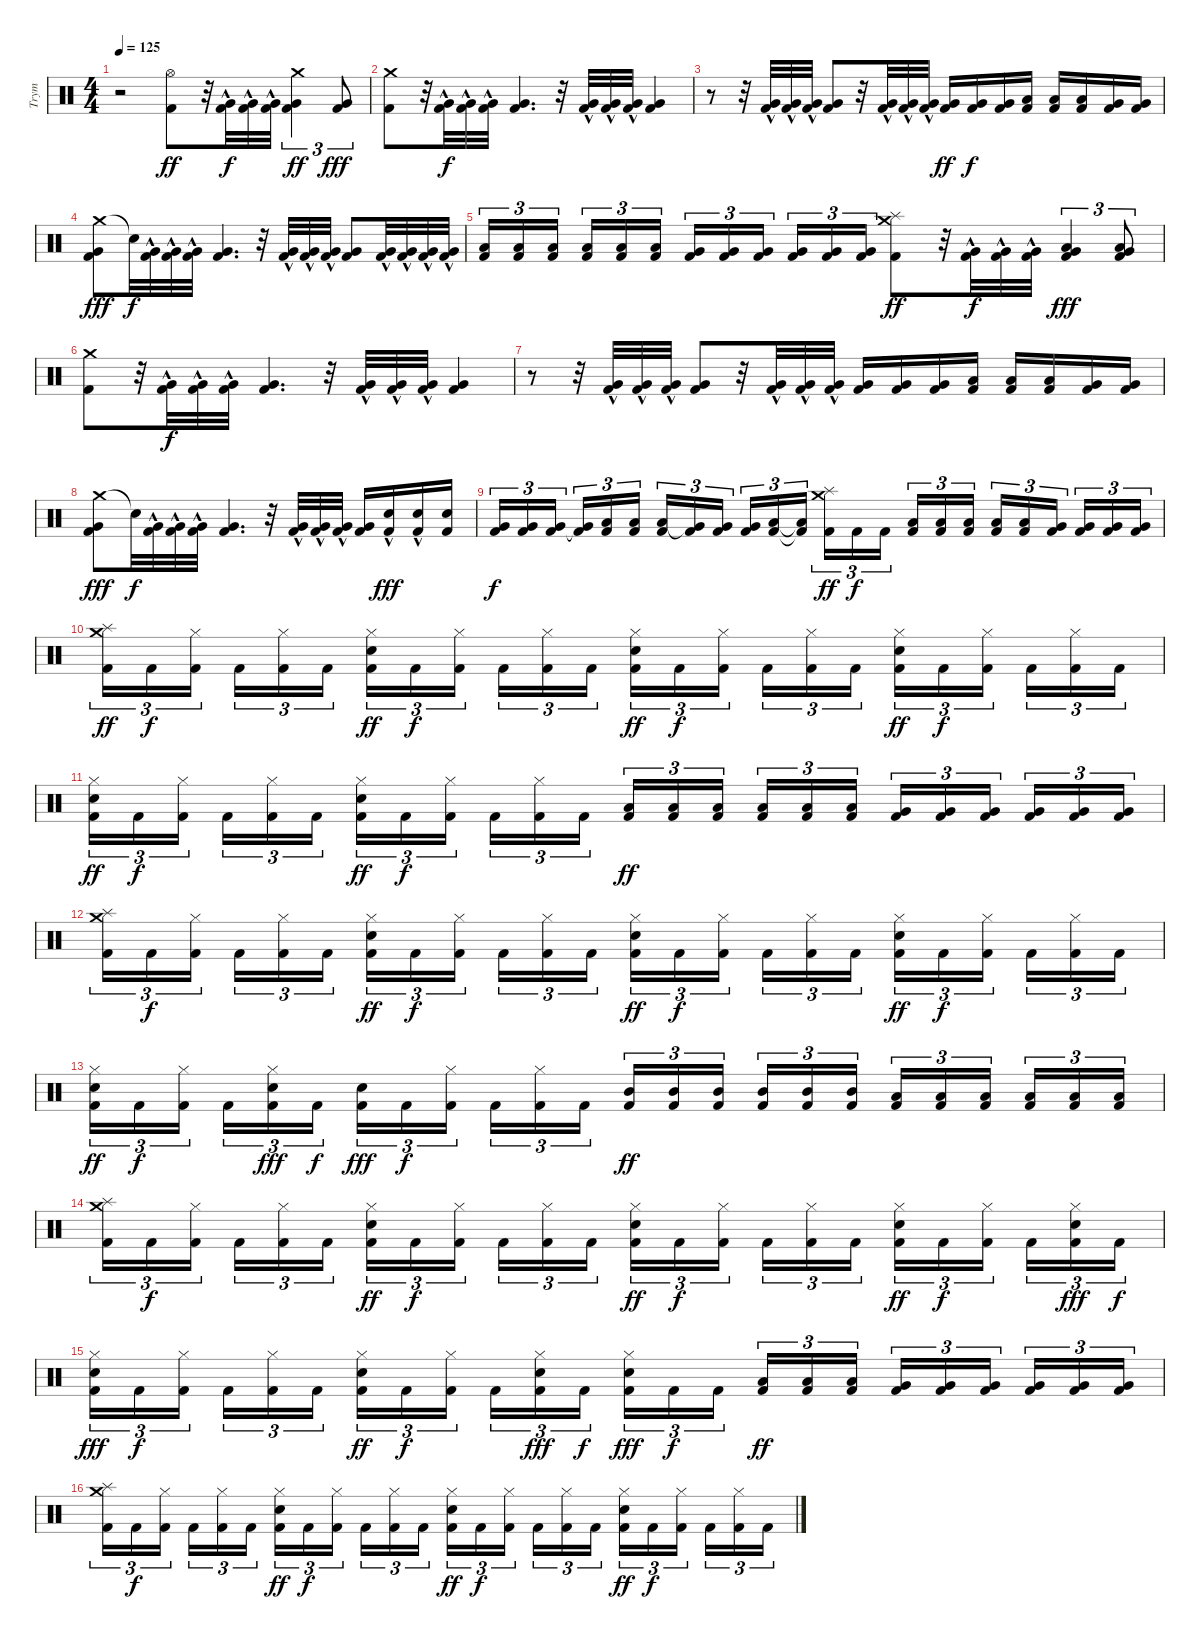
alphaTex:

\track ("Trym" "Trym") {instrument percussion}
\staff {score}
\articulation defaults
\ts (4 4)
\tempo 125
\clef neutral
\ks c
r.2{dy ff} ("Hi-Hat (open)" "Kick (hit) 2").8 r.32 ("Very Low Tom (hit)" "Kick (hit) 2"{hac}).32{dy f} ("Very Low Tom (hit)" "Kick (hit) 2"{hac}).32 ("Very Low Tom (hit)" "Kick (hit) 2"{hac}).32 ("Crash medium (hit)" "Very Low Tom (hit)" "Kick (hit) 2").4{tu (3 2) dy ff} ("Very Low Tom (hit)" "Kick (hit) 2").8{tu (3 2) dy fff} |
("Crash medium (hit)" "Kick (hit) 2").8 r.32 ("Very Low Tom (hit)" "Kick (hit) 2"{hac}).32{dy f} ("Very Low Tom (hit)" "Kick (hit) 2"{hac}).32 ("Very Low Tom (hit)" "Kick (hit) 2"{hac}).32 ("Very Low Tom (hit)" "Kick (hit) 2").4{d} r.32 ("Very Low Tom (hit)" "Kick (hit) 2"{hac}).32 ("Very Low Tom (hit)" "Kick (hit) 2"{hac}).32 ("Very Low Tom (hit)" "Kick (hit) 2"{hac}).32 ("Very Low Tom (hit)" "Kick (hit) 2").4 |
r.8 r.32 ("Very Low Tom (hit)" "Kick (hit) 2"{hac}).32 ("Very Low Tom (hit)" "Kick (hit) 2"{hac}).32 ("Very Low Tom (hit)" "Kick (hit) 2"{hac}).32 ("Very Low Tom (hit)" "Kick (hit) 2").8 r.32 ("Very Low Tom (hit)" "Kick (hit) 2"{hac}).32 ("Very Low Tom (hit)" "Kick (hit) 2"{hac}).32 ("Very Low Tom (hit)" "Kick (hit) 2"{hac}).32 ("Very Low Tom (hit)" "Kick (hit) 2").16{dy ff} ("Very Low Tom (hit)" "Kick (hit) 2").16{dy f} ("Very Low Tom (hit)" "Kick (hit) 2").16 ("Low Tom (hit)" "Kick (hit) 2").16 ("Low Tom (hit)" "Kick (hit) 2").16 ("Low Tom (hit)" "Kick (hit) 2").16 ("Very Low Tom (hit)" "Kick (hit) 2").16 ("Very Low Tom (hit)" "Kick (hit) 2").16 |
("Crash medium (hit)" "Very Low Tom (hit)" "Kick (hit) 2").8{dy fff} "Snare (hit)"{t}.32{dy f} ("Very Low Tom (hit)" "Kick (hit) 2"{hac}).32 ("Very Low Tom (hit)" "Kick (hit) 2"{hac}).32 ("Very Low Tom (hit)" "Kick (hit) 2"{hac}).32 ("Very Low Tom (hit)" "Kick (hit) 2").4{d} r.32 ("Very Low Tom (hit)" "Kick (hit) 2"{hac}).32 ("Very Low Tom (hit)" "Kick (hit) 2"{hac}).32 ("Very Low Tom (hit)" "Kick (hit) 2"{hac}).32 ("Very Low Tom (hit)" "Kick (hit) 2").8 ("Very Low Tom (hit)" "Kick (hit) 2"{hac}).32 ("Very Low Tom (hit)" "Kick (hit) 2"{hac}).32 ("Very Low Tom (hit)" "Kick (hit) 2"{hac}).32 ("Very Low Tom (hit)" "Kick (hit) 2"{hac}).32 |
("Low Tom (hit)" "Kick (hit) 2").16{tu (3 2)} ("Low Tom (hit)" "Kick (hit) 2").16{tu (3 2)} ("Low Tom (hit)" "Kick (hit) 2").16{tu (3 2) beam splitsecondary} ("Low Tom (hit)" "Kick (hit) 2").16{tu (3 2)} ("Low Tom (hit)" "Kick (hit) 2").16{tu (3 2)} ("Low Tom (hit)" "Kick (hit) 2").16{tu (3 2)} ("Very Low Tom (hit)" "Kick (hit) 2").16{tu (3 2)} ("Very Low Tom (hit)" "Kick (hit) 2").16{tu (3 2)} ("Very Low Tom (hit)" "Kick (hit) 2").16{tu (3 2) beam splitsecondary} ("Very Low Tom (hit)" "Kick (hit) 2").16{tu (3 2)} ("Very Low Tom (hit)" "Kick (hit) 2").16{tu (3 2)} ("Very Low Tom (hit)" "Kick (hit) 2").16{tu (3 2)} ("Crash medium (hit)" "Splash (hit)" "Kick (hit) 2").8{dy ff} r.32 ("Very Low Tom (hit)" "Kick (hit) 2"{hac}).32{dy f} ("Very Low Tom (hit)" "Kick (hit) 2"{hac}).32 ("Very Low Tom (hit)" "Kick (hit) 2"{hac}).32 ("Low Tom (hit)" "Very Low Tom (hit)" "Kick (hit) 2").4{tu (3 2) dy fff} ("Low Tom (hit)" "Very Low Tom (hit)" "Kick (hit) 2").8{tu (3 2)} |
("Crash medium (hit)" "Kick (hit) 2").8 r.32 ("Very Low Tom (hit)" "Kick (hit) 2"{hac}).32{dy f} ("Very Low Tom (hit)" "Kick (hit) 2"{hac}).32 ("Very Low Tom (hit)" "Kick (hit) 2"{hac}).32 ("Very Low Tom (hit)" "Kick (hit) 2").4{d} r.32 ("Very Low Tom (hit)" "Kick (hit) 2"{hac}).32 ("Very Low Tom (hit)" "Kick (hit) 2"{hac}).32 ("Very Low Tom (hit)" "Kick (hit) 2"{hac}).32 ("Very Low Tom (hit)" "Kick (hit) 2").4 |
r.8 r.32 ("Very Low Tom (hit)" "Kick (hit) 2"{hac}).32 ("Very Low Tom (hit)" "Kick (hit) 2"{hac}).32 ("Very Low Tom (hit)" "Kick (hit) 2"{hac}).32 ("Very Low Tom (hit)" "Kick (hit) 2").8 r.32 ("Very Low Tom (hit)" "Kick (hit) 2"{hac}).32 ("Very Low Tom (hit)" "Kick (hit) 2"{hac}).32 ("Very Low Tom (hit)" "Kick (hit) 2"{hac}).32 ("Very Low Tom (hit)" "Kick (hit) 2").16 ("Very Low Tom (hit)" "Kick (hit) 2").16 ("Very Low Tom (hit)" "Kick (hit) 2").16 ("Low Tom (hit)" "Kick (hit) 2").16 ("Low Tom (hit)" "Kick (hit) 2").16 ("Low Tom (hit)" "Kick (hit) 2").16 ("Very Low Tom (hit)" "Kick (hit) 2").16 ("Very Low Tom (hit)" "Kick (hit) 2").16 |
("Crash medium (hit)" "Very Low Tom (hit)" "Kick (hit) 2").8{dy fff} "Snare (hit)"{t}.32{dy f} ("Very Low Tom (hit)" "Kick (hit) 2"{hac}).32 ("Very Low Tom (hit)" "Kick (hit) 2"{hac}).32 ("Very Low Tom (hit)" "Kick (hit) 2"{hac}).32 ("Very Low Tom (hit)" "Kick (hit) 2").4{d} r.32 ("Very Low Tom (hit)" "Kick (hit) 2"{hac}).32 ("Very Low Tom (hit)" "Kick (hit) 2"{hac}).32 ("Very Low Tom (hit)" "Kick (hit) 2"{hac}).32 ("Very Low Tom (hit)" "Kick (hit) 2").16 ("Snare (hit) 2" "Kick (hit) 2"{hac}).16{dy fff} ("Snare (hit) 2" "Kick (hit) 2"{hac}).16 ("Snare (hit) 2" "Kick (hit) 2").16 |
("Very Low Tom (hit)" "Kick (hit) 2").16{tu (3 2) dy f} ("Very Low Tom (hit)" "Kick (hit) 2").16{tu (3 2)} ("Very Low Tom (hit)" "Kick (hit) 2").16{tu (3 2) beam splitsecondary} ("Very Low Tom (hit)"{t} "Kick (hit) 2").16{tu (3 2)} ("Low Tom (hit)" "Kick (hit) 2").16{tu (3 2)} ("Low Tom (hit)" "Kick (hit) 2").16{tu (3 2)} ("Low Tom (hit)" "Kick (hit) 2").16{tu (3 2)} ("Very Low Tom (hit)"{t} "Kick (hit) 2").16{tu (3 2)} ("Very Low Tom (hit)" "Kick (hit) 2").16{tu (3 2) beam splitsecondary} ("Very Low Tom (hit)" "Kick (hit) 2").16{tu (3 2)} ("Low Tom (hit)" "Kick (hit) 2").16{tu (3 2)} ("Low Tom (hit)"{t} "Kick (hit) 2"{t}).16{tu (3 2)} ("Crash medium (hit)" "Splash (hit)" "Kick (hit) 2").16{tu (3 2) dy ff} "Kick (hit) 2".16{tu (3 2) dy f} "Kick (hit) 2".16{tu (3 2) beam splitsecondary} ("Low Tom (hit)" "Kick (hit) 2").16{tu (3 2)} ("Low Tom (hit)" "Kick (hit) 2").16{tu (3 2)} ("Low Tom (hit)" "Kick (hit) 2").16{tu (3 2)} ("Low Tom (hit)" "Kick (hit) 2").16{tu (3 2)} ("Low Tom (hit)" "Kick (hit) 2").16{tu (3 2)} ("Very Low Tom (hit)" "Kick (hit) 2").16{tu (3 2) beam splitsecondary} ("Very Low Tom (hit)" "Kick (hit) 2").16{tu (3 2)} ("Very Low Tom (hit)" "Kick (hit) 2").16{tu (3 2)} ("Very Low Tom (hit)" "Kick (hit) 2").16{tu (3 2)} |
("Crash medium (hit)" "Splash (hit)" "Kick (hit) 2").16{tu (3 2) dy ff} "Kick (hit) 2".16{tu (3 2) dy f} ("Hi-Hat (closed)" "Kick (hit) 2").16{tu (3 2) beam splitsecondary} "Kick (hit) 2".16{tu (3 2)} ("Hi-Hat (closed)" "Kick (hit) 2").16{tu (3 2)} "Kick (hit) 2".16{tu (3 2)} ("Snare (hit) 2" "Hi-Hat (closed)" "Kick (hit) 2").16{tu (3 2) dy ff} "Kick (hit) 2".16{tu (3 2) dy f} ("Hi-Hat (closed)" "Kick (hit) 2").16{tu (3 2) beam splitsecondary} "Kick (hit) 2".16{tu (3 2)} ("Hi-Hat (closed)" "Kick (hit) 2").16{tu (3 2)} "Kick (hit) 2".16{tu (3 2)} ("Snare (hit) 2" "Hi-Hat (closed)" "Kick (hit) 2").16{tu (3 2) dy ff} "Kick (hit) 2".16{tu (3 2) dy f} ("Hi-Hat (closed)" "Kick (hit) 2").16{tu (3 2) beam splitsecondary} "Kick (hit) 2".16{tu (3 2)} ("Hi-Hat (closed)" "Kick (hit) 2").16{tu (3 2)} "Kick (hit) 2".16{tu (3 2)} ("Snare (hit) 2" "Hi-Hat (closed)" "Kick (hit) 2").16{tu (3 2) dy ff} "Kick (hit) 2".16{tu (3 2) dy f} ("Hi-Hat (closed)" "Kick (hit) 2").16{tu (3 2) beam splitsecondary} "Kick (hit) 2".16{tu (3 2)} ("Hi-Hat (closed)" "Kick (hit) 2").16{tu (3 2)} "Kick (hit) 2".16{tu (3 2)} |
("Snare (hit) 2" "Hi-Hat (closed)" "Kick (hit) 2").16{tu (3 2) dy ff} "Kick (hit) 2".16{tu (3 2) dy f} ("Hi-Hat (closed)" "Kick (hit) 2").16{tu (3 2) beam splitsecondary} "Kick (hit) 2".16{tu (3 2)} ("Hi-Hat (closed)" "Kick (hit) 2").16{tu (3 2)} "Kick (hit) 2".16{tu (3 2)} ("Snare (hit) 2" "Hi-Hat (closed)" "Kick (hit) 2").16{tu (3 2) dy ff} "Kick (hit) 2".16{tu (3 2) dy f} ("Hi-Hat (closed)" "Kick (hit) 2").16{tu (3 2) beam splitsecondary} "Kick (hit) 2".16{tu (3 2)} ("Hi-Hat (closed)" "Kick (hit) 2").16{tu (3 2)} "Kick (hit) 2".16{tu (3 2)} ("Low Tom (hit)" "Kick (hit) 2").16{tu (3 2) dy ff} ("Low Tom (hit)" "Kick (hit) 2").16{tu (3 2)} ("Low Tom (hit)" "Kick (hit) 2").16{tu (3 2) beam splitsecondary} ("Low Tom (hit)" "Kick (hit) 2").16{tu (3 2)} ("Low Tom (hit)" "Kick (hit) 2").16{tu (3 2)} ("Low Tom (hit)" "Kick (hit) 2").16{tu (3 2)} ("Very Low Tom (hit)" "Kick (hit) 2").16{tu (3 2)} ("Very Low Tom (hit)" "Kick (hit) 2").16{tu (3 2)} ("Very Low Tom (hit)" "Kick (hit) 2").16{tu (3 2) beam splitsecondary} ("Very Low Tom (hit)" "Kick (hit) 2").16{tu (3 2)} ("Very Low Tom (hit)" "Kick (hit) 2").16{tu (3 2)} ("Very Low Tom (hit)" "Kick (hit) 2").16{tu (3 2)} |
("Crash medium (hit)" "Splash (hit)" "Kick (hit) 2").16{tu (3 2)} "Kick (hit) 2".16{tu (3 2) dy f} ("Hi-Hat (closed)" "Kick (hit) 2").16{tu (3 2) beam splitsecondary} "Kick (hit) 2".16{tu (3 2)} ("Hi-Hat (closed)" "Kick (hit) 2").16{tu (3 2)} "Kick (hit) 2".16{tu (3 2)} ("Snare (hit) 2" "Hi-Hat (closed)" "Kick (hit) 2").16{tu (3 2) dy ff} "Kick (hit) 2".16{tu (3 2) dy f} ("Hi-Hat (closed)" "Kick (hit) 2").16{tu (3 2) beam splitsecondary} "Kick (hit) 2".16{tu (3 2)} ("Hi-Hat (closed)" "Kick (hit) 2").16{tu (3 2)} "Kick (hit) 2".16{tu (3 2)} ("Snare (hit) 2" "Hi-Hat (closed)" "Kick (hit) 2").16{tu (3 2) dy ff} "Kick (hit) 2".16{tu (3 2) dy f} ("Hi-Hat (closed)" "Kick (hit) 2").16{tu (3 2) beam splitsecondary} "Kick (hit) 2".16{tu (3 2)} ("Hi-Hat (closed)" "Kick (hit) 2").16{tu (3 2)} "Kick (hit) 2".16{tu (3 2)} ("Snare (hit) 2" "Hi-Hat (closed)" "Kick (hit) 2").16{tu (3 2) dy ff} "Kick (hit) 2".16{tu (3 2) dy f} ("Hi-Hat (closed)" "Kick (hit) 2").16{tu (3 2) beam splitsecondary} "Kick (hit) 2".16{tu (3 2)} ("Hi-Hat (closed)" "Kick (hit) 2").16{tu (3 2)} "Kick (hit) 2".16{tu (3 2)} |
("Snare (hit) 2" "Hi-Hat (closed)" "Kick (hit) 2").16{tu (3 2) dy ff} "Kick (hit) 2".16{tu (3 2) dy f} ("Hi-Hat (closed)" "Kick (hit) 2").16{tu (3 2) beam splitsecondary} "Kick (hit) 2".16{tu (3 2)} ("Snare (hit) 2" "Hi-Hat (closed)" "Kick (hit) 2").16{tu (3 2) dy fff} "Kick (hit) 2".16{tu (3 2) dy f} ("Snare (hit) 2" "Kick (hit) 2").16{tu (3 2) dy fff} "Kick (hit) 2".16{tu (3 2) dy f} ("Hi-Hat (closed)" "Kick (hit) 2").16{tu (3 2) beam splitsecondary} "Kick (hit) 2".16{tu (3 2)} ("Hi-Hat (closed)" "Kick (hit) 2").16{tu (3 2)} "Kick (hit) 2".16{tu (3 2)} ("Mid Tom (hit)" "Kick (hit) 2").16{tu (3 2) dy ff} ("Mid Tom (hit)" "Kick (hit) 2").16{tu (3 2)} ("Mid Tom (hit)" "Kick (hit) 2").16{tu (3 2) beam splitsecondary} ("Mid Tom (hit)" "Kick (hit) 2").16{tu (3 2)} ("Mid Tom (hit)" "Kick (hit) 2").16{tu (3 2)} ("Mid Tom (hit)" "Kick (hit) 2").16{tu (3 2)} ("Low Tom (hit)" "Kick (hit) 2").16{tu (3 2)} ("Low Tom (hit)" "Kick (hit) 2").16{tu (3 2)} ("Low Tom (hit)" "Kick (hit) 2").16{tu (3 2) beam splitsecondary} ("Low Tom (hit)" "Kick (hit) 2").16{tu (3 2)} ("Low Tom (hit)" "Kick (hit) 2").16{tu (3 2)} ("Low Tom (hit)" "Kick (hit) 2").16{tu (3 2)} |
("Crash medium (hit)" "Splash (hit)" "Kick (hit) 2").16{tu (3 2)} "Kick (hit) 2".16{tu (3 2) dy f} ("Hi-Hat (closed)" "Kick (hit) 2").16{tu (3 2) beam splitsecondary} "Kick (hit) 2".16{tu (3 2)} ("Hi-Hat (closed)" "Kick (hit) 2").16{tu (3 2)} "Kick (hit) 2".16{tu (3 2)} ("Snare (hit) 2" "Hi-Hat (closed)" "Kick (hit) 2").16{tu (3 2) dy ff} "Kick (hit) 2".16{tu (3 2) dy f} ("Hi-Hat (closed)" "Kick (hit) 2").16{tu (3 2) beam splitsecondary} "Kick (hit) 2".16{tu (3 2)} ("Hi-Hat (closed)" "Kick (hit) 2").16{tu (3 2)} "Kick (hit) 2".16{tu (3 2)} ("Snare (hit) 2" "Hi-Hat (closed)" "Kick (hit) 2").16{tu (3 2) dy ff} "Kick (hit) 2".16{tu (3 2) dy f} ("Hi-Hat (closed)" "Kick (hit) 2").16{tu (3 2) beam splitsecondary} "Kick (hit) 2".16{tu (3 2)} ("Hi-Hat (closed)" "Kick (hit) 2").16{tu (3 2)} "Kick (hit) 2".16{tu (3 2)} ("Snare (hit) 2" "Hi-Hat (closed)" "Kick (hit) 2").16{tu (3 2) dy ff} "Kick (hit) 2".16{tu (3 2) dy f} ("Hi-Hat (closed)" "Kick (hit) 2").16{tu (3 2) beam splitsecondary} "Kick (hit) 2".16{tu (3 2)} ("Snare (hit) 2" "Hi-Hat (closed)" "Kick (hit) 2").16{tu (3 2) dy fff} "Kick (hit) 2".16{tu (3 2) dy f} |
("Snare (hit) 2" "Hi-Hat (closed)" "Kick (hit) 2").16{tu (3 2) dy fff} "Kick (hit) 2".16{tu (3 2) dy f} ("Hi-Hat (closed)" "Kick (hit) 2").16{tu (3 2) beam splitsecondary} "Kick (hit) 2".16{tu (3 2)} ("Hi-Hat (closed)" "Kick (hit) 2").16{tu (3 2)} "Kick (hit) 2".16{tu (3 2)} ("Snare (hit) 2" "Hi-Hat (closed)" "Kick (hit) 2").16{tu (3 2) dy ff} "Kick (hit) 2".16{tu (3 2) dy f} ("Hi-Hat (closed)" "Kick (hit) 2").16{tu (3 2) beam splitsecondary} "Kick (hit) 2".16{tu (3 2)} ("Snare (hit) 2" "Hi-Hat (closed)" "Kick (hit) 2").16{tu (3 2) dy fff} "Kick (hit) 2".16{tu (3 2) dy f} ("Snare (hit) 2" "Hi-Hat (closed)" "Kick (hit) 2").16{tu (3 2) dy fff} "Kick (hit) 2".16{tu (3 2) dy f} "Kick (hit) 2".16{tu (3 2) beam splitsecondary} ("Low Tom (hit)" "Kick (hit) 2").16{tu (3 2) dy ff} ("Low Tom (hit)" "Kick (hit) 2").16{tu (3 2)} ("Low Tom (hit)" "Kick (hit) 2").16{tu (3 2)} ("Very Low Tom (hit)" "Kick (hit) 2").16{tu (3 2)} ("Very Low Tom (hit)" "Kick (hit) 2").16{tu (3 2)} ("Very Low Tom (hit)" "Kick (hit) 2").16{tu (3 2) beam splitsecondary} ("Very Low Tom (hit)" "Kick (hit) 2").16{tu (3 2)} ("Very Low Tom (hit)" "Kick (hit) 2").16{tu (3 2)} ("Very Low Tom (hit)" "Kick (hit) 2").16{tu (3 2)} |
("Crash medium (hit)" "Splash (hit)" "Kick (hit) 2").16{tu (3 2)} "Kick (hit) 2".16{tu (3 2) dy f} ("Hi-Hat (closed)" "Kick (hit) 2").16{tu (3 2) beam splitsecondary} "Kick (hit) 2".16{tu (3 2)} ("Hi-Hat (closed)" "Kick (hit) 2").16{tu (3 2)} "Kick (hit) 2".16{tu (3 2)} ("Snare (hit) 2" "Hi-Hat (closed)" "Kick (hit) 2").16{tu (3 2) dy ff} "Kick (hit) 2".16{tu (3 2) dy f} ("Hi-Hat (closed)" "Kick (hit) 2").16{tu (3 2) beam splitsecondary} "Kick (hit) 2".16{tu (3 2)} ("Hi-Hat (closed)" "Kick (hit) 2").16{tu (3 2)} "Kick (hit) 2".16{tu (3 2)} ("Snare (hit) 2" "Hi-Hat (closed)" "Kick (hit) 2").16{tu (3 2) dy ff} "Kick (hit) 2".16{tu (3 2) dy f} ("Hi-Hat (closed)" "Kick (hit) 2").16{tu (3 2) beam splitsecondary} "Kick (hit) 2".16{tu (3 2)} ("Hi-Hat (closed)" "Kick (hit) 2").16{tu (3 2)} "Kick (hit) 2".16{tu (3 2)} ("Snare (hit) 2" "Hi-Hat (closed)" "Kick (hit) 2").16{tu (3 2) dy ff} "Kick (hit) 2".16{tu (3 2) dy f} ("Hi-Hat (closed)" "Kick (hit) 2").16{tu (3 2) beam splitsecondary} "Kick (hit) 2".16{tu (3 2)} ("Hi-Hat (closed)" "Kick (hit) 2").16{tu (3 2)} "Kick (hit) 2".16{tu (3 2)}
